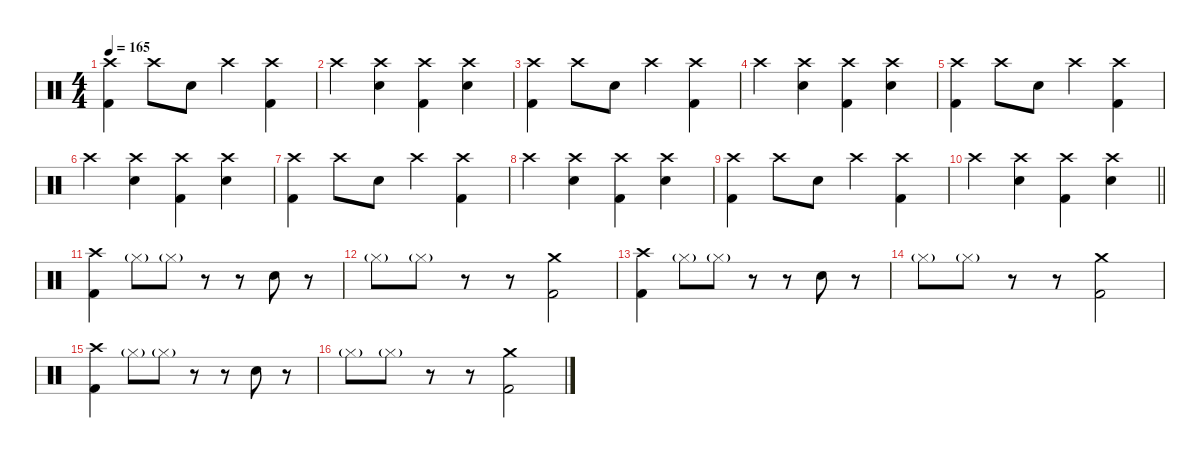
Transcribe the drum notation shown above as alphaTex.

\defaultSystemsLayout 4
\hideDynamics
\bracketExtendMode nobrackets
\singleTrackTrackNamePolicy hidden
\multiTrackTrackNamePolicy hidden
\firstSystemTrackNameMode fullname
\otherSystemsTrackNameOrientation horizontal
\track ("Marty Chapman (Drums)" "drm.") {instrument percussion}
\staff {score}
\articulation defaults
\ts (4 4)
\tempo 165
\clef neutral
\ks c
("Crash high (hit)" "Kick (hit) 2").4{dy f beam Down} "Crash high (hit)".8{beam Down} "Snare (hit) 2".8{beam Down} "Crash high (hit)".4{beam Down} ("Crash high (hit)" "Kick (hit) 2").4{beam Down} |
"Crash high (hit)".4{beam Down} ("Crash high (hit)" "Snare (hit) 2").4{beam Down} ("Crash high (hit)" "Kick (hit) 2").4{beam Down} ("Crash high (hit)" "Snare (hit) 2").4{beam Down} |
("Crash high (hit)" "Kick (hit) 2").4{beam Down} "Crash high (hit)".8{beam Down} "Snare (hit) 2".8{beam Down} "Crash high (hit)".4{beam Down} ("Crash high (hit)" "Kick (hit) 2").4{beam Down} |
"Crash high (hit)".4{beam Down} ("Crash high (hit)" "Snare (hit) 2").4{beam Down} ("Crash high (hit)" "Kick (hit) 2").4{beam Down} ("Crash high (hit)" "Snare (hit) 2").4{beam Down} |
("Crash high (hit)" "Kick (hit) 2").4{beam Down} "Crash high (hit)".8{beam Down} "Snare (hit) 2".8{beam Down} "Crash high (hit)".4{beam Down} ("Crash high (hit)" "Kick (hit) 2").4{beam Down} |
"Crash high (hit)".4{beam Down} ("Crash high (hit)" "Snare (hit) 2").4{beam Down} ("Crash high (hit)" "Kick (hit) 2").4{beam Down} ("Crash high (hit)" "Snare (hit) 2").4{beam Down} |
("Crash high (hit)" "Kick (hit) 2").4{beam Down} "Crash high (hit)".8{beam Down} "Snare (hit) 2".8{beam Down} "Crash high (hit)".4{beam Down} ("Crash high (hit)" "Kick (hit) 2").4{beam Down} |
"Crash high (hit)".4{beam Down} ("Crash high (hit)" "Snare (hit) 2").4{beam Down} ("Crash high (hit)" "Kick (hit) 2").4{beam Down} ("Crash high (hit)" "Snare (hit) 2").4{beam Down} |
("Crash high (hit)" "Kick (hit) 2").4{beam Down} "Crash high (hit)".8{beam Down} "Snare (hit) 2".8{beam Down} "Crash high (hit)".4{beam Down} ("Crash high (hit)" "Kick (hit) 2").4{beam Down} |
\barLineRight lightlight "Crash high (hit)".4{beam Down}
("Crash high (hit)" "Snare (hit) 2").4{beam Down} ("Crash high (hit)" "Kick (hit) 2").4{beam Down} ("Crash high (hit)" "Snare (hit) 2").4{beam Down} |
("Crash high (hit)" "Kick (hit) 2").4{beam Down} "Hi-Hat (closed)"{g}.8{beam Down} "Hi-Hat (closed)"{g}.8{beam Down} r.8{beam Down} r.8{beam Down} "Snare (hit) 2".8{beam Down} r.8{beam Down} |
"Hi-Hat (closed)"{g}.8{beam Down} "Hi-Hat (closed)"{g}.8{beam Down} r.8{beam Down} r.8{beam Down} ("Crash medium (hit)" "Kick (hit) 2").2{beam Down} |
("Crash high (hit)" "Kick (hit) 2").4{beam Down} "Hi-Hat (closed)"{g}.8{beam Down} "Hi-Hat (closed)"{g}.8{beam Down} r.8{beam Down} r.8{beam Down} "Snare (hit) 2".8{beam Down} r.8{beam Down} |
"Hi-Hat (closed)"{g}.8{beam Down} "Hi-Hat (closed)"{g}.8{beam Down} r.8{beam Down} r.8{beam Down} ("Crash medium (hit)" "Kick (hit) 2").2{beam Down} |
("Crash high (hit)" "Kick (hit) 2").4{beam Down} "Hi-Hat (closed)"{g}.8{beam Down} "Hi-Hat (closed)"{g}.8{beam Down} r.8{beam Down} r.8{beam Down} "Snare (hit) 2".8{beam Down} r.8{beam Down} |
"Hi-Hat (closed)"{g}.8{beam Down} "Hi-Hat (closed)"{g}.8{beam Down} r.8{beam Down} r.8{beam Down} ("Crash medium (hit)" "Kick (hit) 2").2{beam Down}
